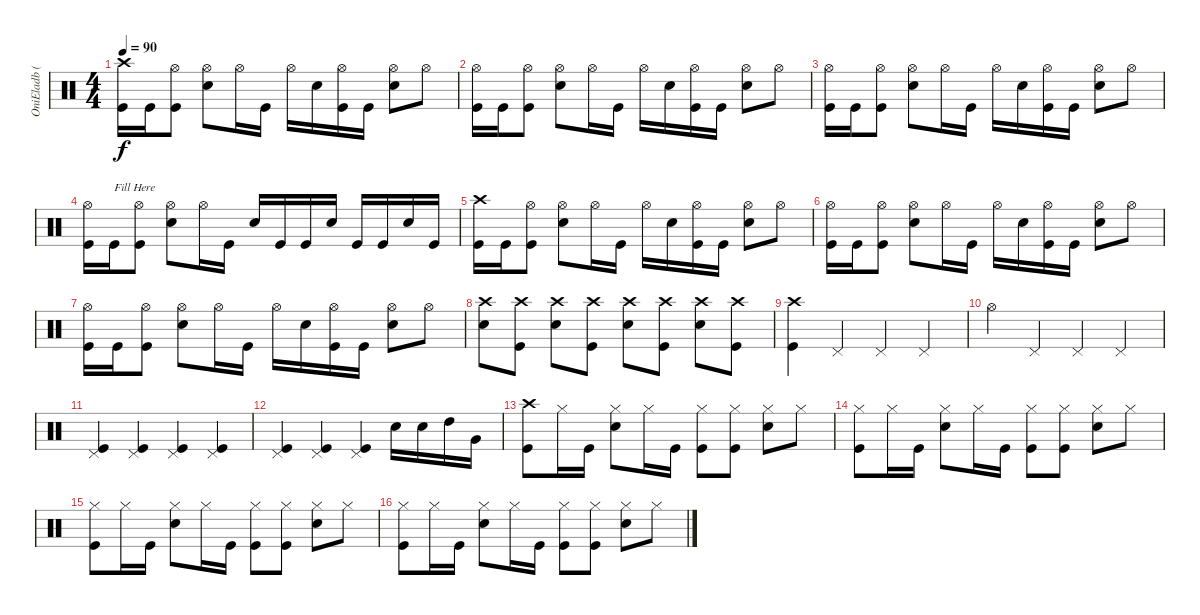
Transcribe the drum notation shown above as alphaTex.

\track ("OniEladb (Battérie)" "OniEladb (") {instrument percussion}
\staff {score}
\articulation defaults
\ts (4 4)
\tempo 90
\clef neutral
\ks c
("Crash high (hit)" "Kick (hit)").16{dy f} "Kick (hit)".16 ("Hi-Hat (open)" "Kick (hit)").8 ("Hi-Hat (open)" "Snare (hit) 2").8 "Hi-Hat (open)".16 "Kick (hit)".16 "Hi-Hat (open)".16 "Snare (hit) 2".16 ("Hi-Hat (open)" "Kick (hit)").16 "Kick (hit)".16 ("Hi-Hat (open)" "Snare (hit) 2").8 "Hi-Hat (open)".8 |
("Hi-Hat (open)" "Kick (hit)").16 "Kick (hit)".16 ("Hi-Hat (open)" "Kick (hit)").8 ("Hi-Hat (open)" "Snare (hit) 2").8 "Hi-Hat (open)".16 "Kick (hit)".16 "Hi-Hat (open)".16 "Snare (hit) 2".16 ("Hi-Hat (open)" "Kick (hit)").16 "Kick (hit)".16 ("Hi-Hat (open)" "Snare (hit) 2").8 "Hi-Hat (open)".8 |
("Hi-Hat (open)" "Kick (hit)").16 "Kick (hit)".16 ("Hi-Hat (open)" "Kick (hit)").8 ("Hi-Hat (open)" "Snare (hit) 2").8 "Hi-Hat (open)".16 "Kick (hit)".16 "Hi-Hat (open)".16 "Snare (hit) 2".16 ("Hi-Hat (open)" "Kick (hit)").16 "Kick (hit)".16 ("Hi-Hat (open)" "Snare (hit) 2").8 "Hi-Hat (open)".8 |
("Hi-Hat (open)" "Kick (hit)").16 "Kick (hit)".16{txt "Fill Here"} ("Hi-Hat (open)" "Kick (hit)").8 ("Hi-Hat (open)" "Snare (hit) 2").8 "Hi-Hat (open)".16 "Kick (hit)".16 "Snare (hit) 2".16 "Kick (hit)".16 "Kick (hit)".16 "Snare (hit) 2".16 "Kick (hit)".16 "Kick (hit)".16 "Snare (hit) 2".16 "Kick (hit)".16 |
("Crash high (hit)" "Kick (hit)").16 "Kick (hit)".16 ("Hi-Hat (open)" "Kick (hit)").8 ("Hi-Hat (open)" "Snare (hit) 2").8 "Hi-Hat (open)".16 "Kick (hit)".16 "Hi-Hat (open)".16 "Snare (hit) 2".16 ("Hi-Hat (open)" "Kick (hit)").16 "Kick (hit)".16 ("Hi-Hat (open)" "Snare (hit) 2").8 "Hi-Hat (open)".8 |
("Hi-Hat (open)" "Kick (hit)").16 "Kick (hit)".16 ("Hi-Hat (open)" "Kick (hit)").8 ("Hi-Hat (open)" "Snare (hit) 2").8 "Hi-Hat (open)".16 "Kick (hit)".16 "Hi-Hat (open)".16 "Snare (hit) 2".16 ("Hi-Hat (open)" "Kick (hit)").16 "Kick (hit)".16 ("Hi-Hat (open)" "Snare (hit) 2").8 "Hi-Hat (open)".8 |
("Hi-Hat (open)" "Kick (hit)").16 "Kick (hit)".16 ("Hi-Hat (open)" "Kick (hit)").8 ("Hi-Hat (open)" "Snare (hit) 2").8 "Hi-Hat (open)".16 "Kick (hit)".16 "Hi-Hat (open)".16 "Snare (hit) 2".16 ("Hi-Hat (open)" "Kick (hit)").16 "Kick (hit)".16 ("Hi-Hat (open)" "Snare (hit) 2").8 "Hi-Hat (open)".8 |
("Crash high (hit)" "Snare (hit) 2").8 ("Crash high (hit)" "Kick (hit)").8 ("Crash high (hit)" "Snare (hit) 2").8 ("Crash high (hit)" "Kick (hit)").8 ("Crash high (hit)" "Snare (hit) 2").8 ("Crash high (hit)" "Kick (hit)").8 ("Crash high (hit)" "Snare (hit) 2").8 ("Crash high (hit)" "Kick (hit)").8 |
("Crash high (hit)" "Kick (hit)").4 "Pedal Hi-Hat (hit)".4 "Pedal Hi-Hat (hit)".4 "Pedal Hi-Hat (hit)".4 |
"Hi-Hat (open)".4 "Pedal Hi-Hat (hit)".4 "Pedal Hi-Hat (hit)".4 "Pedal Hi-Hat (hit)".4 |
("Kick (hit)" "Pedal Hi-Hat (hit)").4 ("Kick (hit)" "Pedal Hi-Hat (hit)").4 ("Kick (hit)" "Pedal Hi-Hat (hit)").4 ("Kick (hit)" "Pedal Hi-Hat (hit)").4 |
("Kick (hit)" "Pedal Hi-Hat (hit)").4 ("Kick (hit)" "Pedal Hi-Hat (hit)").4 ("Kick (hit)" "Pedal Hi-Hat (hit)").4 "Snare (hit) 2".16 "Snare (hit) 2".16 "High Tom (hit)".16 "Very Low Tom (hit)".16 |
("Crash high (hit)" "Kick (hit)").8 "Hi-Hat (closed)".16 "Kick (hit)".16 ("Hi-Hat (closed)" "Snare (hit) 2").8 "Hi-Hat (closed)".16 "Kick (hit)".16 ("Hi-Hat (closed)" "Kick (hit)").8 ("Hi-Hat (closed)" "Kick (hit)").8 ("Hi-Hat (closed)" "Snare (hit) 2").8 "Hi-Hat (closed)".8 |
("Hi-Hat (closed)" "Kick (hit)").8 "Hi-Hat (closed)".16 "Kick (hit)".16 ("Hi-Hat (closed)" "Snare (hit) 2").8 "Hi-Hat (closed)".16 "Kick (hit)".16 ("Hi-Hat (closed)" "Kick (hit)").8 ("Hi-Hat (closed)" "Kick (hit)").8 ("Hi-Hat (closed)" "Snare (hit) 2").8 "Hi-Hat (closed)".8 |
("Hi-Hat (closed)" "Kick (hit)").8 "Hi-Hat (closed)".16 "Kick (hit)".16 ("Hi-Hat (closed)" "Snare (hit) 2").8 "Hi-Hat (closed)".16 "Kick (hit)".16 ("Hi-Hat (closed)" "Kick (hit)").8 ("Hi-Hat (closed)" "Kick (hit)").8 ("Hi-Hat (closed)" "Snare (hit) 2").8 "Hi-Hat (closed)".8 |
("Hi-Hat (closed)" "Kick (hit)").8 "Hi-Hat (closed)".16 "Kick (hit)".16 ("Hi-Hat (closed)" "Snare (hit) 2").8 "Hi-Hat (closed)".16 "Kick (hit)".16 ("Hi-Hat (closed)" "Kick (hit)").8 ("Hi-Hat (closed)" "Kick (hit)").8 ("Hi-Hat (closed)" "Snare (hit) 2").8 "Hi-Hat (closed)".8
